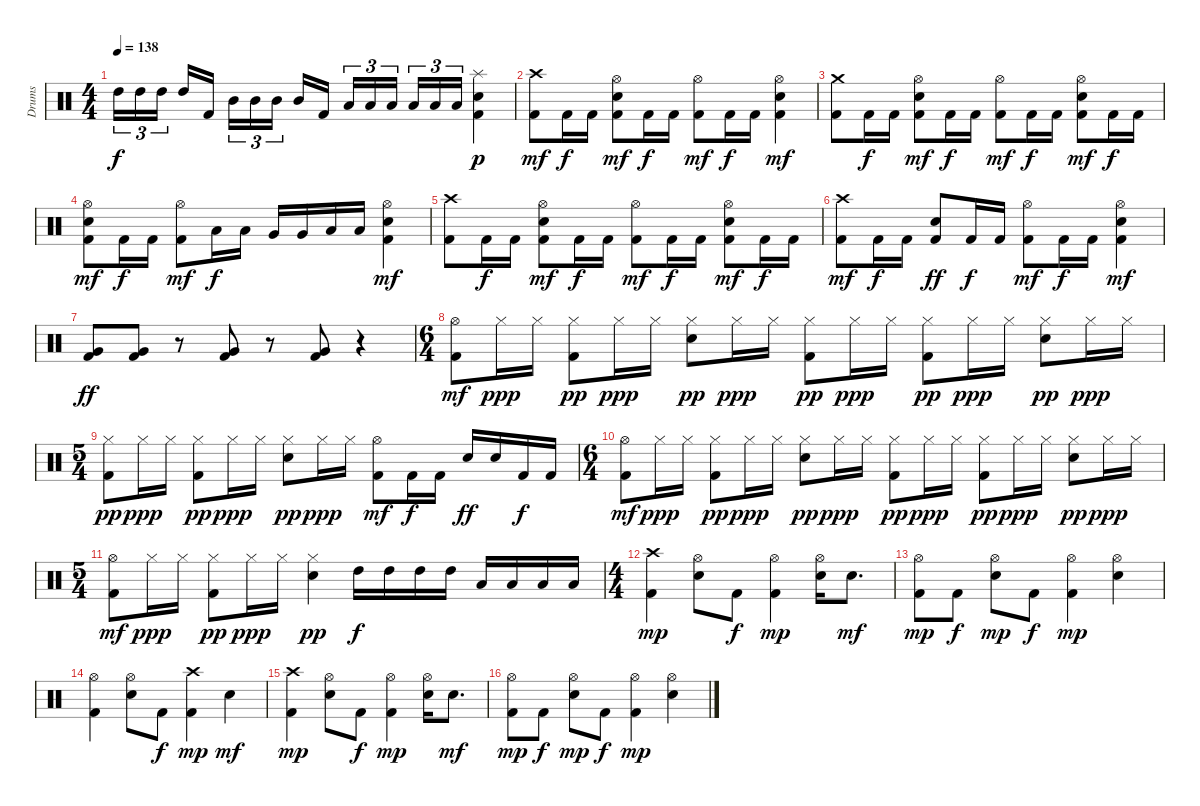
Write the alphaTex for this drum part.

\track ("Drums" "Drums") {instrument percussion}
\staff {score}
\articulation defaults
\ts (4 4)
\tempo 138
\clef neutral
\ks c "High Tom (hit)".16{tu (3 2) dy f} "High Tom (hit)".16{tu (3 2)} "High Tom (hit)".16{tu (3 2) beam splitsecondary} "High Tom (hit)".16 "Kick (hit) 2".16 "Mid Tom (hit)".16{tu (3 2)} "Mid Tom (hit)".16{tu (3 2)} "Mid Tom (hit)".16{tu (3 2) beam splitsecondary} "Mid Tom (hit)".16 "Kick (hit) 2".16 "Low Tom (hit)".16{tu (3 2)} "Low Tom (hit)".16{tu (3 2)} "Low Tom (hit)".16{tu (3 2) beam splitsecondary} "Low Tom (hit)".16{tu (3 2)} "Low Tom (hit)".16{tu (3 2)} "Low Tom (hit)".16{tu (3 2)}
("Kick (hit) 2" "Electric Snare (hit)" "Splash (hit)").4{dy p} |
("Kick (hit) 2" "Crash high (hit)").8{dy mf} "Kick (hit) 2".16{dy f} "Kick (hit) 2".16 ("Kick (hit) 2" "Electric Snare (hit)" "Hi-Hat (open)").8{dy mf} "Kick (hit) 2".16{dy f} "Kick (hit) 2".16 ("Kick (hit) 2" "Hi-Hat (open)").8{dy mf} "Kick (hit) 2".16{dy f} "Kick (hit) 2".16 ("Kick (hit) 2" "Electric Snare (hit)" "Hi-Hat (open)").4{dy mf} |
("Kick (hit) 2" "Crash medium (hit)").8 "Kick (hit) 2".16{dy f} "Kick (hit) 2".16 ("Kick (hit) 2" "Electric Snare (hit)" "Hi-Hat (open)").8{dy mf} "Kick (hit) 2".16{dy f} "Kick (hit) 2".16 ("Kick (hit) 2" "Hi-Hat (open)").8{dy mf} "Kick (hit) 2".16{dy f} "Kick (hit) 2".16 ("Kick (hit) 2" "Electric Snare (hit)" "Hi-Hat (open)").8{dy mf} "Kick (hit) 2".16{dy f} "Kick (hit) 2".16 |
("Kick (hit) 2" "Electric Snare (hit)" "Hi-Hat (open)").8{dy mf} "Kick (hit) 2".16{dy f} "Kick (hit) 2".16 ("Kick (hit) 2" "Hi-Hat (open)").8{dy mf} "Low Tom (hit)".16{dy f} "Low Tom (hit)".16 "Very Low Tom (hit)".16 "Very Low Tom (hit)".16 "Low Floor Tom (hit)".16 "Low Floor Tom (hit)".16 ("Kick (hit) 2" "Electric Snare (hit)" "Hi-Hat (open)").4{dy mf} |
("Kick (hit) 2" "Crash high (hit)").8 "Kick (hit) 2".16{dy f} "Kick (hit) 2".16 ("Kick (hit) 2" "Electric Snare (hit)" "Hi-Hat (open)").8{dy mf} "Kick (hit) 2".16{dy f} "Kick (hit) 2".16 ("Kick (hit) 2" "Hi-Hat (open)").8{dy mf} "Kick (hit) 2".16{dy f} "Kick (hit) 2".16 ("Kick (hit) 2" "Electric Snare (hit)" "Hi-Hat (open)").8{dy mf} "Kick (hit) 2".16{dy f} "Kick (hit) 2".16 |
("Kick (hit) 2" "Crash high (hit)").8{dy mf} "Kick (hit) 2".16{dy f} "Kick (hit) 2".16 ("Kick (hit) 2" "Electric Snare (hit)").8{dy ff} "Kick (hit) 2".16{dy f} "Kick (hit) 2".16 ("Kick (hit) 2" "Hi-Hat (open)").8{dy mf} "Kick (hit) 2".16{dy f} "Kick (hit) 2".16 ("Kick (hit) 2" "Electric Snare (hit)" "Hi-Hat (open)").4{dy mf} |
("Kick (hit) 2" "Very Low Tom (hit)").8{dy ff} ("Kick (hit) 2" "Very Low Tom (hit)").8 r.8 ("Kick (hit) 2" "Very Low Tom (hit)").8 r.8 ("Kick (hit) 2" "Very Low Tom (hit)").8 r.4 |
\ts (6 4)
("Kick (hit) 2" "Hi-Hat (open)").8{dy mf} "Hi-Hat (closed)".16{dy ppp} "Hi-Hat (closed)".16 ("Kick (hit) 2" "Hi-Hat (closed)").8{dy pp} "Hi-Hat (closed)".16{dy ppp} "Hi-Hat (closed)".16 ("Electric Snare (hit)" "Hi-Hat (closed)").8{dy pp} "Hi-Hat (closed)".16{dy ppp} "Hi-Hat (closed)".16 ("Kick (hit) 2" "Hi-Hat (closed)").8{dy pp} "Hi-Hat (closed)".16{dy ppp} "Hi-Hat (closed)".16 ("Kick (hit) 2" "Hi-Hat (closed)").8{dy pp} "Hi-Hat (closed)".16{dy ppp} "Hi-Hat (closed)".16 ("Electric Snare (hit)" "Hi-Hat (closed)").8{dy pp} "Hi-Hat (closed)".16{dy ppp} "Hi-Hat (closed)".16 |
\ts (5 4)
("Kick (hit) 2" "Hi-Hat (closed)").8{dy pp} "Hi-Hat (closed)".16{dy ppp} "Hi-Hat (closed)".16 ("Kick (hit) 2" "Hi-Hat (closed)").8{dy pp} "Hi-Hat (closed)".16{dy ppp} "Hi-Hat (closed)".16 ("Electric Snare (hit)" "Hi-Hat (closed)").8{dy pp} "Hi-Hat (closed)".16{dy ppp} "Hi-Hat (closed)".16 ("Kick (hit) 2" "Hi-Hat (open)").8{dy mf} "Kick (hit) 2".16{dy f} "Kick (hit) 2".16 "Electric Snare (hit)".16{dy ff} "Electric Snare (hit)".16 "Kick (hit) 2".16{dy f} "Kick (hit) 2".16 |
\ts (6 4)
("Kick (hit) 2" "Hi-Hat (open)").8{dy mf} "Hi-Hat (closed)".16{dy ppp} "Hi-Hat (closed)".16 ("Kick (hit) 2" "Hi-Hat (closed)").8{dy pp} "Hi-Hat (closed)".16{dy ppp} "Hi-Hat (closed)".16 ("Electric Snare (hit)" "Hi-Hat (closed)").8{dy pp} "Hi-Hat (closed)".16{dy ppp} "Hi-Hat (closed)".16 ("Kick (hit) 2" "Hi-Hat (closed)").8{dy pp} "Hi-Hat (closed)".16{dy ppp} "Hi-Hat (closed)".16 ("Kick (hit) 2" "Hi-Hat (closed)").8{dy pp} "Hi-Hat (closed)".16{dy ppp} "Hi-Hat (closed)".16 ("Electric Snare (hit)" "Hi-Hat (closed)").8{dy pp} "Hi-Hat (closed)".16{dy ppp} "Hi-Hat (closed)".16 |
\ts (5 4)
("Kick (hit) 2" "Hi-Hat (open)").8{dy mf} "Hi-Hat (closed)".16{dy ppp} "Hi-Hat (closed)".16 ("Kick (hit) 2" "Hi-Hat (closed)").8{dy pp} "Hi-Hat (closed)".16{dy ppp} "Hi-Hat (closed)".16 ("Electric Snare (hit)" "Hi-Hat (closed)").4{dy pp} "High Tom (hit)".16{dy f} "High Tom (hit)".16 "High Tom (hit)".16 "High Tom (hit)".16 "Low Tom (hit)".16 "Low Tom (hit)".16 "Low Tom (hit)".16 "Low Tom (hit)".16 |
\ts (4 4)
("Kick (hit) 2" "Crash high (hit)").4{dy mp} ("Electric Snare (hit)" "Hi-Hat (open)").8 "Kick (hit) 2".8{dy f} ("Kick (hit) 2" "Hi-Hat (open)").4{dy mp} ("Electric Snare (hit)" "Hi-Hat (open)").16 "Electric Snare (hit)".8{d dy mf} |
("Kick (hit) 2" "Hi-Hat (open)").8{dy mp} "Kick (hit) 2".8{dy f} ("Electric Snare (hit)" "Hi-Hat (open)").8{dy mp} "Kick (hit) 2".8{dy f} ("Kick (hit) 2" "Hi-Hat (open)").4{dy mp} ("Electric Snare (hit)" "Hi-Hat (open)").4 |
("Kick (hit) 2" "Hi-Hat (open)").4 ("Electric Snare (hit)" "Hi-Hat (open)").8 "Kick (hit) 2".8{dy f} ("Kick (hit) 2" "Crash high (hit)").4{dy mp} "Electric Snare (hit)".4{dy mf} |
("Kick (hit) 2" "Crash high (hit)").4{dy mp} ("Electric Snare (hit)" "Hi-Hat (open)").8 "Kick (hit) 2".8{dy f} ("Kick (hit) 2" "Hi-Hat (open)").4{dy mp} ("Electric Snare (hit)" "Hi-Hat (open)").16 "Electric Snare (hit)".8{d dy mf} |
("Kick (hit) 2" "Hi-Hat (open)").8{dy mp} "Kick (hit) 2".8{dy f} ("Electric Snare (hit)" "Hi-Hat (open)").8{dy mp} "Kick (hit) 2".8{dy f} ("Kick (hit) 2" "Hi-Hat (open)").4{dy mp} ("Electric Snare (hit)" "Hi-Hat (open)").4
